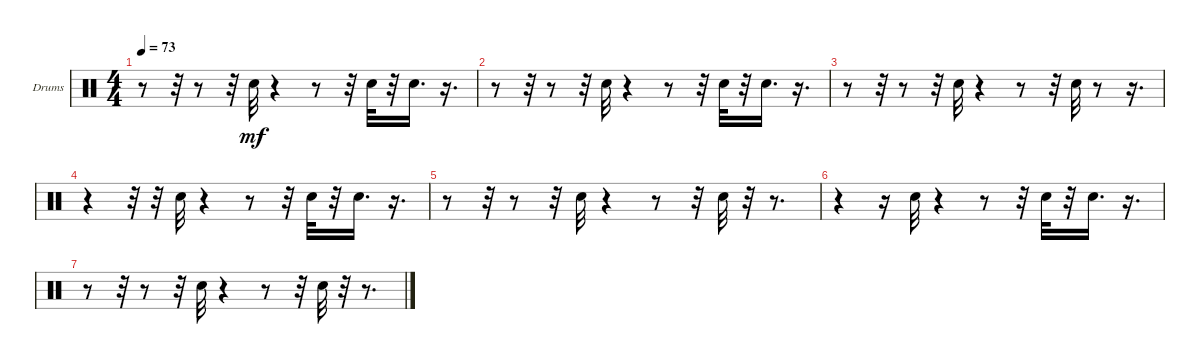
\bracketExtendMode groupsimilarinstruments
\firstSystemTrackNameOrientation horizontal
\otherSystemsTrackNameOrientation horizontal
\track ("snare" "Drums") {instrument percussion}
\staff {score}
\articulation defaults
\ts (4 4)
\tempo 73
\clef neutral
\ks c
r.8{dy mf} r.32 r.8 r.32 "Snare (hit) 2".32 r.4 r.8 r.32 "Snare (hit) 2".32 r.32 "Snare (hit) 2".16{d} r.16{d} |
r.8 r.32 r.8 r.32 "Snare (hit) 2".32 r.4 r.8 r.32 "Snare (hit) 2".32 r.32 "Snare (hit) 2".16{d} r.16{d} |
r.8 r.32 r.8 r.32 "Snare (hit) 2".32 r.4 r.8 r.32 "Snare (hit) 2".32 r.8 r.16{d} |
r.4 r.32 r.32 "Snare (hit) 2".32 r.4 r.8 r.32 "Snare (hit) 2".32 r.32 "Snare (hit) 2".16{d} r.16{d} |
r.8 r.32 r.8 r.32 "Snare (hit) 2".32 r.4 r.8 r.32 "Snare (hit) 2".32 r.32 r.8{d} |
r.4 r.16 "Snare (hit) 2".32 r.4 r.8 r.32 "Snare (hit) 2".32 r.32 "Snare (hit) 2".16{d} r.16{d} |
r.8 r.32 r.8 r.32 "Snare (hit) 2".32 r.4 r.8 r.32 "Snare (hit) 2".32 r.32 r.8{d}
